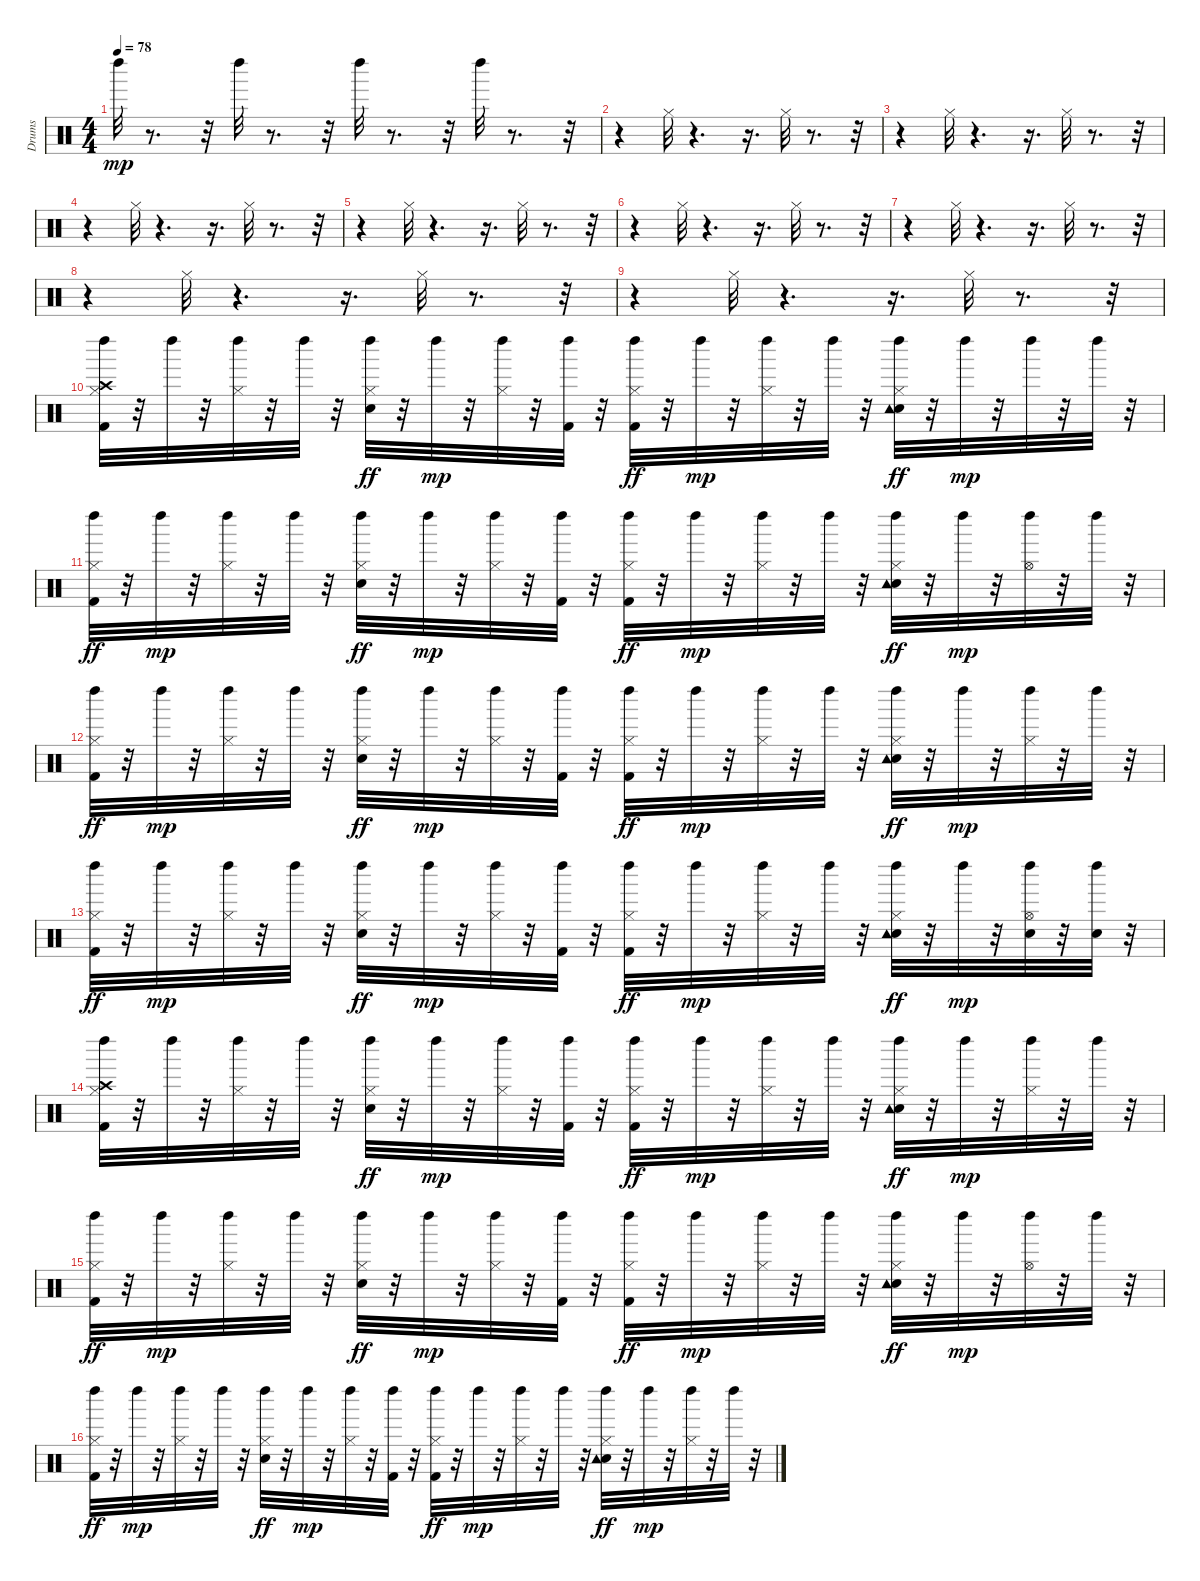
\track ("Drums               " "Drums     ") {instrument percussion}
\staff {score}
\articulation defaults
\ts (4 4)
\tempo 78
\clef neutral
\ks c "Left Maraca (hit)".32{dy mp}
r.8{d} r.32 "Left Maraca (hit)".32 r.8{d} r.32 "Left Maraca (hit)".32 r.8{d} r.32 "Left Maraca (hit)".32 r.8{d} r.32 |
r.4 "Hi-Hat (closed)".32 r.4{d} r.16{d} "Hi-Hat (closed)".32 r.8{d} r.32 |
r.4 "Hi-Hat (closed)".32 r.4{d} r.16{d} "Hi-Hat (closed)".32 r.8{d} r.32 |
r.4 "Hi-Hat (closed)".32 r.4{d} r.16{d} "Hi-Hat (closed)".32 r.8{d} r.32 |
r.4 "Hi-Hat (closed)".32 r.4{d} r.16{d} "Hi-Hat (closed)".32 r.8{d} r.32 |
r.4 "Hi-Hat (closed)".32 r.4{d} r.16{d} "Hi-Hat (closed)".32 r.8{d} r.32 |
r.4 "Hi-Hat (closed)".32 r.4{d} r.16{d} "Hi-Hat (closed)".32 r.8{d} r.32 |
r.4 "Hi-Hat (closed)".32 r.4{d} r.16{d} "Hi-Hat (closed)".32 r.8{d} r.32 |
r.4 "Hi-Hat (closed)".32 r.4{d} r.16{d} "Hi-Hat (closed)".32 r.8{d} r.32 |
("Kick (hit) 2" "Hi-Hat (closed)" "Left Maraca (hit)" "Crash high (hit)").32 r.32 "Left Maraca (hit)".32 r.32 ("Hi-Hat (closed)" "Left Maraca (hit)").32 r.32 "Left Maraca (hit)".32 r.32 ("Snare (hit) 2" "Hi-Hat (closed)" "Left Maraca (hit)").32{dy ff} r.32 "Left Maraca (hit)".32{dy mp} r.32 ("Hi-Hat (closed)" "Left Maraca (hit)").32 r.32 ("Kick (hit) 2" "Left Maraca (hit)").32 r.32 ("Kick (hit) 2" "Hi-Hat (closed)" "Left Maraca (hit)").32{dy ff} r.32 "Left Maraca (hit)".32{dy mp} r.32 ("Hi-Hat (closed)" "Left Maraca (hit)").32 r.32 "Left Maraca (hit)".32 r.32 ("Snare (hit) 2" "Hi-Hat (closed)" "Left Maraca (hit)" "Tambourine (hit)").32{dy ff} r.32 "Left Maraca (hit)".32{dy mp} r.32 "Left Maraca (hit)".32 r.32 "Left Maraca (hit)".32 r.32 |
("Kick (hit) 2" "Hi-Hat (closed)" "Left Maraca (hit)").32{dy ff} r.32 "Left Maraca (hit)".32{dy mp} r.32 ("Hi-Hat (closed)" "Left Maraca (hit)").32 r.32 "Left Maraca (hit)".32 r.32 ("Snare (hit) 2" "Hi-Hat (closed)" "Left Maraca (hit)").32{dy ff} r.32 "Left Maraca (hit)".32{dy mp} r.32 ("Hi-Hat (closed)" "Left Maraca (hit)").32 r.32 ("Kick (hit) 2" "Left Maraca (hit)").32 r.32 ("Kick (hit) 2" "Hi-Hat (closed)" "Left Maraca (hit)").32{dy ff} r.32 "Left Maraca (hit)".32{dy mp} r.32 ("Hi-Hat (closed)" "Left Maraca (hit)").32 r.32 "Left Maraca (hit)".32 r.32 ("Snare (hit) 2" "Hi-Hat (closed)" "Left Maraca (hit)" "Tambourine (hit)").32{dy ff} r.32 "Left Maraca (hit)".32{dy mp} r.32 ("Hi-Hat (open)" "Left Maraca (hit)").32 r.32 "Left Maraca (hit)".32 r.32 |
("Kick (hit) 2" "Hi-Hat (closed)" "Left Maraca (hit)").32{dy ff} r.32 "Left Maraca (hit)".32{dy mp} r.32 ("Hi-Hat (closed)" "Left Maraca (hit)").32 r.32 "Left Maraca (hit)".32 r.32 ("Snare (hit) 2" "Hi-Hat (closed)" "Left Maraca (hit)").32{dy ff} r.32 "Left Maraca (hit)".32{dy mp} r.32 ("Hi-Hat (closed)" "Left Maraca (hit)").32 r.32 ("Kick (hit) 2" "Left Maraca (hit)").32 r.32 ("Kick (hit) 2" "Hi-Hat (closed)" "Left Maraca (hit)").32{dy ff} r.32 "Left Maraca (hit)".32{dy mp} r.32 ("Hi-Hat (closed)" "Left Maraca (hit)").32 r.32 "Left Maraca (hit)".32 r.32 ("Snare (hit) 2" "Hi-Hat (closed)" "Left Maraca (hit)" "Tambourine (hit)").32{dy ff} r.32 "Left Maraca (hit)".32{dy mp} r.32 ("Hi-Hat (closed)" "Left Maraca (hit)").32 r.32 "Left Maraca (hit)".32 r.32 |
("Kick (hit) 2" "Hi-Hat (closed)" "Left Maraca (hit)").32{dy ff} r.32 "Left Maraca (hit)".32{dy mp} r.32 ("Hi-Hat (closed)" "Left Maraca (hit)").32 r.32 "Left Maraca (hit)".32 r.32 ("Snare (hit) 2" "Hi-Hat (closed)" "Left Maraca (hit)").32{dy ff} r.32 "Left Maraca (hit)".32{dy mp} r.32 ("Hi-Hat (closed)" "Left Maraca (hit)").32 r.32 ("Kick (hit) 2" "Left Maraca (hit)").32 r.32 ("Kick (hit) 2" "Hi-Hat (closed)" "Left Maraca (hit)").32{dy ff} r.32 "Left Maraca (hit)".32{dy mp} r.32 ("Hi-Hat (closed)" "Left Maraca (hit)").32 r.32 "Left Maraca (hit)".32 r.32 ("Snare (hit) 2" "Hi-Hat (closed)" "Left Maraca (hit)" "Tambourine (hit)").32{dy ff} r.32 "Left Maraca (hit)".32{dy mp} r.32 ("Snare (hit) 2" "Hi-Hat (open)" "Left Maraca (hit)").32 r.32 ("Snare (hit) 2" "Left Maraca (hit)").32 r.32 |
("Kick (hit) 2" "Hi-Hat (closed)" "Left Maraca (hit)" "Crash high (hit)").32 r.32 "Left Maraca (hit)".32 r.32 ("Hi-Hat (closed)" "Left Maraca (hit)").32 r.32 "Left Maraca (hit)".32 r.32 ("Snare (hit) 2" "Hi-Hat (closed)" "Left Maraca (hit)").32{dy ff} r.32 "Left Maraca (hit)".32{dy mp} r.32 ("Hi-Hat (closed)" "Left Maraca (hit)").32 r.32 ("Kick (hit) 2" "Left Maraca (hit)").32 r.32 ("Kick (hit) 2" "Hi-Hat (closed)" "Left Maraca (hit)").32{dy ff} r.32 "Left Maraca (hit)".32{dy mp} r.32 ("Hi-Hat (closed)" "Left Maraca (hit)").32 r.32 "Left Maraca (hit)".32 r.32 ("Snare (hit) 2" "Hi-Hat (closed)" "Left Maraca (hit)" "Tambourine (hit)").32{dy ff} r.32 "Left Maraca (hit)".32{dy mp} r.32 ("Hi-Hat (closed)" "Left Maraca (hit)").32 r.32 "Left Maraca (hit)".32 r.32 |
("Kick (hit) 2" "Hi-Hat (closed)" "Left Maraca (hit)").32{dy ff} r.32 "Left Maraca (hit)".32{dy mp} r.32 ("Hi-Hat (closed)" "Left Maraca (hit)").32 r.32 "Left Maraca (hit)".32 r.32 ("Snare (hit) 2" "Hi-Hat (closed)" "Left Maraca (hit)").32{dy ff} r.32 "Left Maraca (hit)".32{dy mp} r.32 ("Hi-Hat (closed)" "Left Maraca (hit)").32 r.32 ("Kick (hit) 2" "Left Maraca (hit)").32 r.32 ("Kick (hit) 2" "Hi-Hat (closed)" "Left Maraca (hit)").32{dy ff} r.32 "Left Maraca (hit)".32{dy mp} r.32 ("Hi-Hat (closed)" "Left Maraca (hit)").32 r.32 "Left Maraca (hit)".32 r.32 ("Snare (hit) 2" "Hi-Hat (closed)" "Left Maraca (hit)" "Tambourine (hit)").32{dy ff} r.32 "Left Maraca (hit)".32{dy mp} r.32 ("Hi-Hat (open)" "Left Maraca (hit)").32 r.32 "Left Maraca (hit)".32 r.32 |
("Kick (hit) 2" "Hi-Hat (closed)" "Left Maraca (hit)").32{dy ff} r.32 "Left Maraca (hit)".32{dy mp} r.32 ("Hi-Hat (closed)" "Left Maraca (hit)").32 r.32 "Left Maraca (hit)".32 r.32 ("Snare (hit) 2" "Hi-Hat (closed)" "Left Maraca (hit)").32{dy ff} r.32 "Left Maraca (hit)".32{dy mp} r.32 ("Hi-Hat (closed)" "Left Maraca (hit)").32 r.32 ("Kick (hit) 2" "Left Maraca (hit)").32 r.32 ("Kick (hit) 2" "Hi-Hat (closed)" "Left Maraca (hit)").32{dy ff} r.32 "Left Maraca (hit)".32{dy mp} r.32 ("Hi-Hat (closed)" "Left Maraca (hit)").32 r.32 "Left Maraca (hit)".32 r.32 ("Snare (hit) 2" "Hi-Hat (closed)" "Left Maraca (hit)" "Tambourine (hit)").32{dy ff} r.32 "Left Maraca (hit)".32{dy mp} r.32 ("Hi-Hat (closed)" "Left Maraca (hit)").32 r.32 "Left Maraca (hit)".32 r.32
